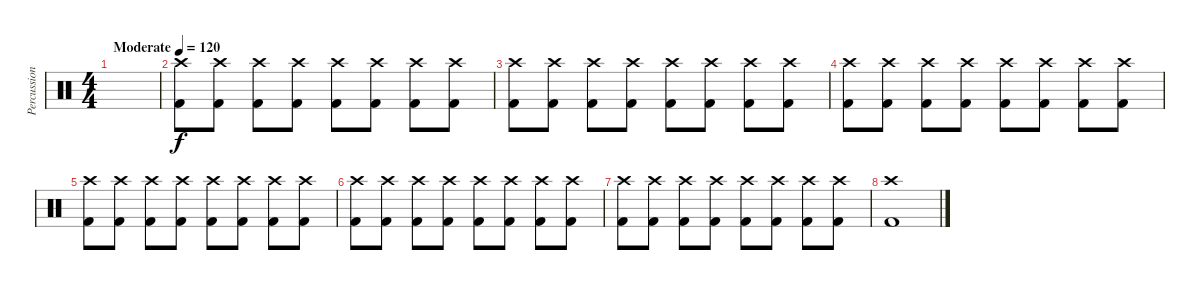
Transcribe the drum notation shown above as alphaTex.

\track ("Percussion" "Percussion") {instrument percussion}
\staff {score}
\articulation defaults
\ts (4 4)
\tempo (120 "Moderate")
\clef neutral
\ks c
|
("Crash high (hit)" "Kick (hit) 2").8 ("Crash high (hit)" "Kick (hit) 2").8 ("Crash high (hit)" "Kick (hit) 2").8 ("Crash high (hit)" "Kick (hit) 2").8 ("Crash high (hit)" "Kick (hit) 2").8 ("Crash high (hit)" "Kick (hit) 2").8 ("Crash high (hit)" "Kick (hit) 2").8 ("Crash high (hit)" "Kick (hit) 2").8 |
("Crash high (hit)" "Kick (hit) 2").8 ("Crash high (hit)" "Kick (hit) 2").8 ("Crash high (hit)" "Kick (hit) 2").8 ("Crash high (hit)" "Kick (hit) 2").8 ("Crash high (hit)" "Kick (hit) 2").8 ("Crash high (hit)" "Kick (hit) 2").8 ("Crash high (hit)" "Kick (hit) 2").8 ("Crash high (hit)" "Kick (hit) 2").8 |
("Crash high (hit)" "Kick (hit) 2").8 ("Crash high (hit)" "Kick (hit) 2").8 ("Crash high (hit)" "Kick (hit) 2").8 ("Crash high (hit)" "Kick (hit) 2").8 ("Crash high (hit)" "Kick (hit) 2").8 ("Crash high (hit)" "Kick (hit) 2").8 ("Crash high (hit)" "Kick (hit) 2").8 ("Crash high (hit)" "Kick (hit) 2").8 |
("Crash high (hit)" "Kick (hit) 2").8 ("Crash high (hit)" "Kick (hit) 2").8 ("Crash high (hit)" "Kick (hit) 2").8 ("Crash high (hit)" "Kick (hit) 2").8 ("Crash high (hit)" "Kick (hit) 2").8 ("Crash high (hit)" "Kick (hit) 2").8 ("Crash high (hit)" "Kick (hit) 2").8 ("Crash high (hit)" "Kick (hit) 2").8 |
("Crash high (hit)" "Kick (hit) 2").8 ("Crash high (hit)" "Kick (hit) 2").8 ("Crash high (hit)" "Kick (hit) 2").8 ("Crash high (hit)" "Kick (hit) 2").8 ("Crash high (hit)" "Kick (hit) 2").8 ("Crash high (hit)" "Kick (hit) 2").8 ("Crash high (hit)" "Kick (hit) 2").8 ("Crash high (hit)" "Kick (hit) 2").8 |
("Crash high (hit)" "Kick (hit) 2").8 ("Crash high (hit)" "Kick (hit) 2").8 ("Crash high (hit)" "Kick (hit) 2").8 ("Crash high (hit)" "Kick (hit) 2").8 ("Crash high (hit)" "Kick (hit) 2").8 ("Crash high (hit)" "Kick (hit) 2").8 ("Crash high (hit)" "Kick (hit) 2").8 ("Crash high (hit)" "Kick (hit) 2").8 |
("Crash high (hit)" "Kick (hit) 2").1
